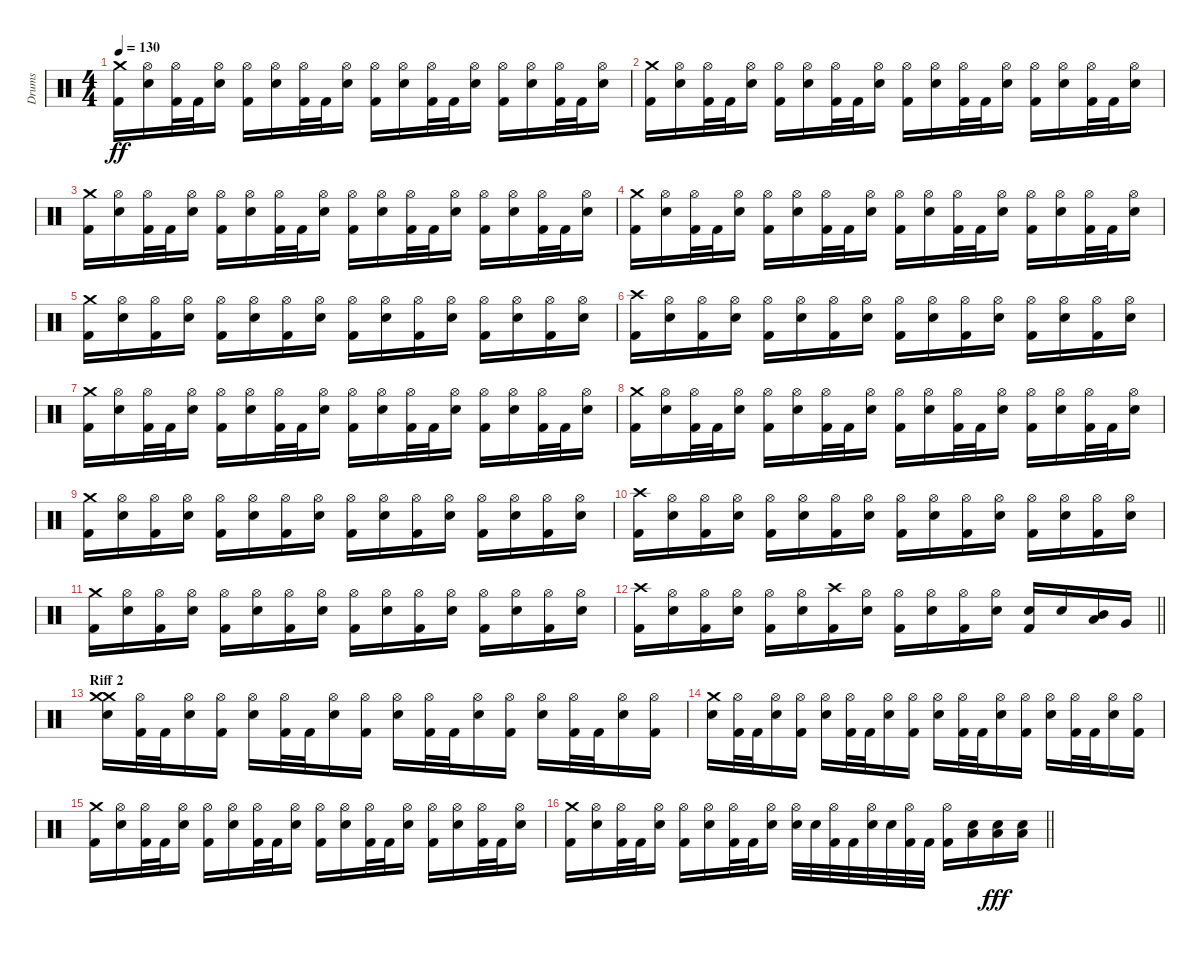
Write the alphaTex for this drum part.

\track ("Drums" "Drums") {instrument percussion}
\staff {score}
\articulation defaults
\ts (4 4)
\tempo 130
\clef neutral
\ks c
("Crash medium (hit)" "Kick (hit) 2").16{dy ff} ("Hi-Hat (open)" "Snare (hit) 2").16 ("Hi-Hat (open)" "Kick (hit) 2").32 "Kick (hit) 2".32 ("Hi-Hat (open)" "Snare (hit) 2").16 ("Hi-Hat (open)" "Kick (hit) 2").16 ("Hi-Hat (open)" "Snare (hit) 2").16 ("Hi-Hat (open)" "Kick (hit) 2").32 "Kick (hit) 2".32 ("Hi-Hat (open)" "Snare (hit) 2").16 ("Hi-Hat (open)" "Kick (hit) 2").16 ("Hi-Hat (open)" "Snare (hit) 2").16 ("Hi-Hat (open)" "Kick (hit) 2").32 "Kick (hit) 2".32 ("Hi-Hat (open)" "Snare (hit) 2").16 ("Hi-Hat (open)" "Kick (hit) 2").16 ("Hi-Hat (open)" "Snare (hit) 2").16 ("Hi-Hat (open)" "Kick (hit) 2").32 "Kick (hit) 2".32 ("Hi-Hat (open)" "Snare (hit) 2").16 |
("Crash medium (hit)" "Kick (hit) 2").16 ("Hi-Hat (open)" "Snare (hit) 2").16 ("Hi-Hat (open)" "Kick (hit) 2").32 "Kick (hit) 2".32 ("Hi-Hat (open)" "Snare (hit) 2").16 ("Hi-Hat (open)" "Kick (hit) 2").16 ("Hi-Hat (open)" "Snare (hit) 2").16 ("Hi-Hat (open)" "Kick (hit) 2").32 "Kick (hit) 2".32 ("Hi-Hat (open)" "Snare (hit) 2").16 ("Hi-Hat (open)" "Kick (hit) 2").16 ("Hi-Hat (open)" "Snare (hit) 2").16 ("Hi-Hat (open)" "Kick (hit) 2").32 "Kick (hit) 2".32 ("Hi-Hat (open)" "Snare (hit) 2").16 ("Hi-Hat (open)" "Kick (hit) 2").16 ("Hi-Hat (open)" "Snare (hit) 2").16 ("Hi-Hat (open)" "Kick (hit) 2").32 "Kick (hit) 2".32 ("Hi-Hat (open)" "Snare (hit) 2").16 |
("Crash medium (hit)" "Kick (hit) 2").16 ("Hi-Hat (open)" "Snare (hit) 2").16 ("Hi-Hat (open)" "Kick (hit) 2").32 "Kick (hit) 2".32 ("Hi-Hat (open)" "Snare (hit) 2").16 ("Hi-Hat (open)" "Kick (hit) 2").16 ("Hi-Hat (open)" "Snare (hit) 2").16 ("Hi-Hat (open)" "Kick (hit) 2").32 "Kick (hit) 2".32 ("Hi-Hat (open)" "Snare (hit) 2").16 ("Hi-Hat (open)" "Kick (hit) 2").16 ("Hi-Hat (open)" "Snare (hit) 2").16 ("Hi-Hat (open)" "Kick (hit) 2").32 "Kick (hit) 2".32 ("Hi-Hat (open)" "Snare (hit) 2").16 ("Hi-Hat (open)" "Kick (hit) 2").16 ("Hi-Hat (open)" "Snare (hit) 2").16 ("Hi-Hat (open)" "Kick (hit) 2").32 "Kick (hit) 2".32 ("Hi-Hat (open)" "Snare (hit) 2").16 |
("Crash medium (hit)" "Kick (hit) 2").16 ("Hi-Hat (open)" "Snare (hit) 2").16 ("Hi-Hat (open)" "Kick (hit) 2").32 "Kick (hit) 2".32 ("Hi-Hat (open)" "Snare (hit) 2").16 ("Hi-Hat (open)" "Kick (hit) 2").16 ("Hi-Hat (open)" "Snare (hit) 2").16 ("Hi-Hat (open)" "Kick (hit) 2").32 "Kick (hit) 2".32 ("Hi-Hat (open)" "Snare (hit) 2").16 ("Hi-Hat (open)" "Kick (hit) 2").16 ("Hi-Hat (open)" "Snare (hit) 2").16 ("Hi-Hat (open)" "Kick (hit) 2").32 "Kick (hit) 2".32 ("Hi-Hat (open)" "Snare (hit) 2").16 ("Hi-Hat (open)" "Kick (hit) 2").16 ("Hi-Hat (open)" "Snare (hit) 2").16 ("Hi-Hat (open)" "Kick (hit) 2").32 "Kick (hit) 2".32 ("Hi-Hat (open)" "Snare (hit) 2").16 |
("Crash medium (hit)" "Kick (hit) 2").16 ("Hi-Hat (open)" "Snare (hit) 2").16 ("Hi-Hat (open)" "Kick (hit) 2").16 ("Hi-Hat (open)" "Snare (hit) 2").16 ("Hi-Hat (open)" "Kick (hit) 2").16 ("Hi-Hat (open)" "Snare (hit) 2").16 ("Hi-Hat (open)" "Kick (hit) 2").16 ("Hi-Hat (open)" "Snare (hit) 2").16 ("Hi-Hat (open)" "Kick (hit) 2").16 ("Hi-Hat (open)" "Snare (hit) 2").16 ("Hi-Hat (open)" "Kick (hit) 2").16 ("Hi-Hat (open)" "Snare (hit) 2").16 ("Hi-Hat (open)" "Kick (hit) 2").16 ("Hi-Hat (open)" "Snare (hit) 2").16 ("Hi-Hat (open)" "Kick (hit) 2").16 ("Hi-Hat (open)" "Snare (hit) 2").16 |
("Crash high (hit)" "Kick (hit) 2").16 ("Hi-Hat (open)" "Snare (hit) 2").16 ("Hi-Hat (open)" "Kick (hit) 2").16 ("Hi-Hat (open)" "Snare (hit) 2").16 ("Hi-Hat (open)" "Kick (hit) 2").16 ("Hi-Hat (open)" "Snare (hit) 2").16 ("Hi-Hat (open)" "Kick (hit) 2").16 ("Hi-Hat (open)" "Snare (hit) 2").16 ("Hi-Hat (open)" "Kick (hit) 2").16 ("Hi-Hat (open)" "Snare (hit) 2").16 ("Hi-Hat (open)" "Kick (hit) 2").16 ("Hi-Hat (open)" "Snare (hit) 2").16 ("Hi-Hat (open)" "Kick (hit) 2").16 ("Hi-Hat (open)" "Snare (hit) 2").16 ("Hi-Hat (open)" "Kick (hit) 2").16 ("Hi-Hat (open)" "Snare (hit) 2").16 |
("Crash medium (hit)" "Kick (hit) 2").16 ("Hi-Hat (open)" "Snare (hit) 2").16 ("Hi-Hat (open)" "Kick (hit) 2").32 "Kick (hit) 2".32 ("Hi-Hat (open)" "Snare (hit) 2").16 ("Hi-Hat (open)" "Kick (hit) 2").16 ("Hi-Hat (open)" "Snare (hit) 2").16 ("Hi-Hat (open)" "Kick (hit) 2").32 "Kick (hit) 2".32 ("Hi-Hat (open)" "Snare (hit) 2").16 ("Hi-Hat (open)" "Kick (hit) 2").16 ("Hi-Hat (open)" "Snare (hit) 2").16 ("Hi-Hat (open)" "Kick (hit) 2").32 "Kick (hit) 2".32 ("Hi-Hat (open)" "Snare (hit) 2").16 ("Hi-Hat (open)" "Kick (hit) 2").16 ("Hi-Hat (open)" "Snare (hit) 2").16 ("Hi-Hat (open)" "Kick (hit) 2").32 "Kick (hit) 2".32 ("Hi-Hat (open)" "Snare (hit) 2").16 |
("Crash medium (hit)" "Kick (hit) 2").16 ("Hi-Hat (open)" "Snare (hit) 2").16 ("Hi-Hat (open)" "Kick (hit) 2").32 "Kick (hit) 2".32 ("Hi-Hat (open)" "Snare (hit) 2").16 ("Hi-Hat (open)" "Kick (hit) 2").16 ("Hi-Hat (open)" "Snare (hit) 2").16 ("Hi-Hat (open)" "Kick (hit) 2").32 "Kick (hit) 2".32 ("Hi-Hat (open)" "Snare (hit) 2").16 ("Hi-Hat (open)" "Kick (hit) 2").16 ("Hi-Hat (open)" "Snare (hit) 2").16 ("Hi-Hat (open)" "Kick (hit) 2").32 "Kick (hit) 2".32 ("Hi-Hat (open)" "Snare (hit) 2").16 ("Hi-Hat (open)" "Kick (hit) 2").16 ("Hi-Hat (open)" "Snare (hit) 2").16 ("Hi-Hat (open)" "Kick (hit) 2").32 "Kick (hit) 2".32 ("Hi-Hat (open)" "Snare (hit) 2").16 |
("Crash medium (hit)" "Kick (hit) 2").16 ("Hi-Hat (open)" "Snare (hit) 2").16 ("Hi-Hat (open)" "Kick (hit) 2").16 ("Hi-Hat (open)" "Snare (hit) 2").16 ("Hi-Hat (open)" "Kick (hit) 2").16 ("Hi-Hat (open)" "Snare (hit) 2").16 ("Hi-Hat (open)" "Kick (hit) 2").16 ("Hi-Hat (open)" "Snare (hit) 2").16 ("Hi-Hat (open)" "Kick (hit) 2").16 ("Hi-Hat (open)" "Snare (hit) 2").16 ("Hi-Hat (open)" "Kick (hit) 2").16 ("Hi-Hat (open)" "Snare (hit) 2").16 ("Hi-Hat (open)" "Kick (hit) 2").16 ("Hi-Hat (open)" "Snare (hit) 2").16 ("Hi-Hat (open)" "Kick (hit) 2").16 ("Hi-Hat (open)" "Snare (hit) 2").16 |
("Crash high (hit)" "Kick (hit) 2").16 ("Hi-Hat (open)" "Snare (hit) 2").16 ("Hi-Hat (open)" "Kick (hit) 2").16 ("Hi-Hat (open)" "Snare (hit) 2").16 ("Hi-Hat (open)" "Kick (hit) 2").16 ("Hi-Hat (open)" "Snare (hit) 2").16 ("Hi-Hat (open)" "Kick (hit) 2").16 ("Hi-Hat (open)" "Snare (hit) 2").16 ("Hi-Hat (open)" "Kick (hit) 2").16 ("Hi-Hat (open)" "Snare (hit) 2").16 ("Hi-Hat (open)" "Kick (hit) 2").16 ("Hi-Hat (open)" "Snare (hit) 2").16 ("Hi-Hat (open)" "Kick (hit) 2").16 ("Hi-Hat (open)" "Snare (hit) 2").16 ("Hi-Hat (open)" "Kick (hit) 2").16 ("Hi-Hat (open)" "Snare (hit) 2").16 |
("Crash medium (hit)" "Kick (hit) 2").16 ("Hi-Hat (open)" "Snare (hit) 2").16 ("Hi-Hat (open)" "Kick (hit) 2").16 ("Hi-Hat (open)" "Snare (hit) 2").16 ("Hi-Hat (open)" "Kick (hit) 2").16 ("Hi-Hat (open)" "Snare (hit) 2").16 ("Hi-Hat (open)" "Kick (hit) 2").16 ("Hi-Hat (open)" "Snare (hit) 2").16 ("Hi-Hat (open)" "Kick (hit) 2").16 ("Hi-Hat (open)" "Snare (hit) 2").16 ("Hi-Hat (open)" "Kick (hit) 2").16 ("Hi-Hat (open)" "Snare (hit) 2").16 ("Hi-Hat (open)" "Kick (hit) 2").16 ("Hi-Hat (open)" "Snare (hit) 2").16 ("Hi-Hat (open)" "Kick (hit) 2").16 ("Hi-Hat (open)" "Snare (hit) 2").16 |
\barLineRight lightlight
("Crash high (hit)" "Kick (hit) 2").16 ("Hi-Hat (open)" "Snare (hit) 2").16 ("Hi-Hat (open)" "Kick (hit) 2").16 ("Hi-Hat (open)" "Snare (hit) 2").16 ("Hi-Hat (open)" "Kick (hit) 2").16 ("Hi-Hat (open)" "Snare (hit) 2").16 ("Crash high (hit)" "Kick (hit) 2").16 ("Hi-Hat (open)" "Snare (hit) 2").16 ("Hi-Hat (open)" "Kick (hit) 2").16 ("Hi-Hat (open)" "Snare (hit) 2").16 ("Hi-Hat (open)" "Kick (hit) 2").16 ("Hi-Hat (open)" "Snare (hit) 2").16 ("Kick (hit) 2" "Snare (hit) 2").16 "Snare (hit) 2".16 ("Low Tom (hit)" "Mid Tom (hit)").16 "Very Low Tom (hit)".16 |
\section ("" "Riff 2")
("Crash medium (hit)" "Crash medium (hit)" "Snare (hit) 2").16 ("Hi-Hat (open)" "Kick (hit) 2").32 "Kick (hit) 2".32 ("Hi-Hat (open)" "Snare (hit) 2").16 ("Hi-Hat (open)" "Kick (hit) 2").16 ("Hi-Hat (open)" "Snare (hit) 2").16 ("Hi-Hat (open)" "Kick (hit) 2").32 "Kick (hit) 2".32 ("Hi-Hat (open)" "Snare (hit) 2").16 ("Hi-Hat (open)" "Kick (hit) 2").16 ("Hi-Hat (open)" "Snare (hit) 2").16 ("Hi-Hat (open)" "Kick (hit) 2").32 "Kick (hit) 2".32 ("Hi-Hat (open)" "Snare (hit) 2").16 ("Hi-Hat (open)" "Kick (hit) 2").16 ("Hi-Hat (open)" "Snare (hit) 2").16 ("Hi-Hat (open)" "Kick (hit) 2").32 "Kick (hit) 2".32 ("Hi-Hat (open)" "Snare (hit) 2").16 ("Hi-Hat (open)" "Kick (hit) 2").16 |
("Crash medium (hit)" "Snare (hit) 2").16 ("Hi-Hat (open)" "Kick (hit) 2").32 "Kick (hit) 2".32 ("Hi-Hat (open)" "Snare (hit) 2").16 ("Hi-Hat (open)" "Kick (hit) 2").16 ("Hi-Hat (open)" "Snare (hit) 2").16 ("Hi-Hat (open)" "Kick (hit) 2").32 "Kick (hit) 2".32 ("Hi-Hat (open)" "Snare (hit) 2").16 ("Hi-Hat (open)" "Kick (hit) 2").16 ("Hi-Hat (open)" "Snare (hit) 2").16 ("Hi-Hat (open)" "Kick (hit) 2").32 "Kick (hit) 2".32 ("Hi-Hat (open)" "Snare (hit) 2").16 ("Hi-Hat (open)" "Kick (hit) 2").16 ("Hi-Hat (open)" "Snare (hit) 2").16 ("Hi-Hat (open)" "Kick (hit) 2").32 "Kick (hit) 2".32 ("Hi-Hat (open)" "Snare (hit) 2").16 ("Hi-Hat (open)" "Kick (hit) 2").16 |
("Crash medium (hit)" "Kick (hit) 2").16 ("Hi-Hat (open)" "Snare (hit) 2").16 ("Hi-Hat (open)" "Kick (hit) 2").32 "Kick (hit) 2".32 ("Hi-Hat (open)" "Snare (hit) 2").16 ("Hi-Hat (open)" "Kick (hit) 2").16 ("Hi-Hat (open)" "Snare (hit) 2").16 ("Hi-Hat (open)" "Kick (hit) 2").32 "Kick (hit) 2".32 ("Hi-Hat (open)" "Snare (hit) 2").16 ("Hi-Hat (open)" "Kick (hit) 2").16 ("Hi-Hat (open)" "Snare (hit) 2").16 ("Hi-Hat (open)" "Kick (hit) 2").32 "Kick (hit) 2".32 ("Hi-Hat (open)" "Snare (hit) 2").16 ("Hi-Hat (open)" "Kick (hit) 2").16 ("Hi-Hat (open)" "Snare (hit) 2").16 ("Hi-Hat (open)" "Kick (hit) 2").32 "Kick (hit) 2".32 ("Hi-Hat (open)" "Snare (hit) 2").16 |
\barLineRight lightlight
("Crash medium (hit)" "Kick (hit) 2").16 ("Hi-Hat (open)" "Snare (hit) 2").16 ("Hi-Hat (open)" "Kick (hit) 2").32 "Kick (hit) 2".32 ("Hi-Hat (open)" "Snare (hit) 2").16 ("Hi-Hat (open)" "Kick (hit) 2").16 ("Hi-Hat (open)" "Snare (hit) 2").16 ("Hi-Hat (open)" "Kick (hit) 2").32 "Kick (hit) 2".32 ("Hi-Hat (open)" "Snare (hit) 2").16 ("Hi-Hat (open)" "Snare (hit) 2").32 "Snare (hit) 2".32 ("Hi-Hat (open)" "Kick (hit) 2").32 "Kick (hit) 2".32 ("Hi-Hat (open)" "Snare (hit) 2").32 "Snare (hit) 2".32 ("Hi-Hat (open)" "Kick (hit) 2").32 "Kick (hit) 2".32 ("Hi-Hat (open)" "Kick (hit) 2").16 ("Snare (hit) 2" "Low Tom (hit)").16 ("Snare (hit) 2" "Low Tom (hit)").16{dy fff} ("Snare (hit) 2" "Low Tom (hit)").16
